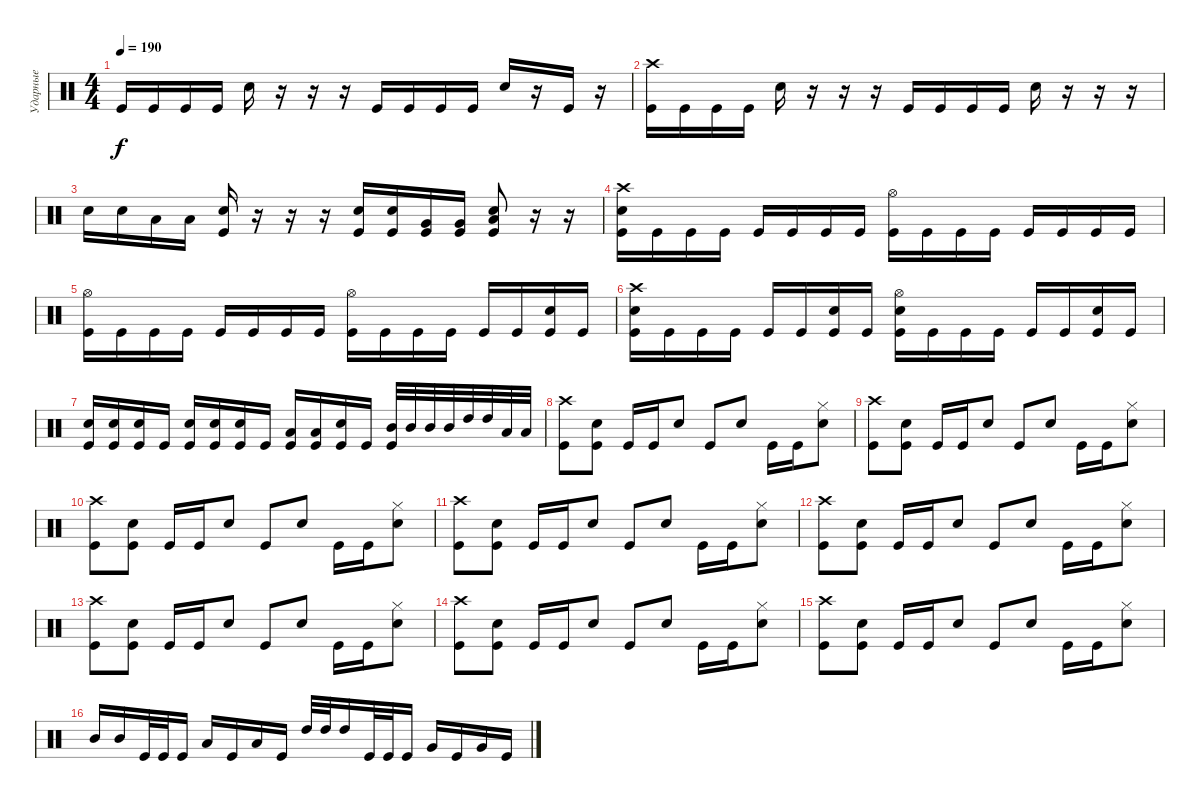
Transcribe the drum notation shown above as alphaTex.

\track ("Ударные" "Ударные") {instrument percussion}
\staff {score}
\articulation defaults
\ts (4 4)
\tempo 190
\clef neutral
\ks c "Kick (hit)".16{dy f} "Kick (hit)".16 "Kick (hit)".16 "Kick (hit)".16 "Electric Snare (hit)".16
r.16 r.16 r.16 "Kick (hit)".16 "Kick (hit)".16 "Kick (hit)".16 "Kick (hit)".16 "Electric Snare (hit)".16 r.16 "Kick (hit)".16 r.16 |
("Crash high (hit)" "Kick (hit)").16 "Kick (hit)".16 "Kick (hit)".16 "Kick (hit)".16 "Electric Snare (hit)".16 r.16 r.16 r.16 "Kick (hit)".16 "Kick (hit)".16 "Kick (hit)".16 "Kick (hit)".16 "Electric Snare (hit)".16 r.16 r.16 r.16 |
"Electric Snare (hit)".16 "Electric Snare (hit)".16 "Low Tom (hit)".16 "Low Tom (hit)".16 ("Electric Snare (hit)" "Kick (hit)").16 r.16 r.16 r.16 ("Electric Snare (hit)" "Kick (hit)").16 ("Electric Snare (hit)" "Kick (hit)").16 ("Very Low Tom (hit)" "Kick (hit)").16 ("Very Low Tom (hit)" "Kick (hit)").16 ("Low Tom (hit)" "Electric Snare (hit)" "Kick (hit)").8 r.16 r.16 |
("Crash high (hit)" "Electric Snare (hit)" "Kick (hit)").16 "Kick (hit)".16 "Kick (hit)".16 "Kick (hit)".16 "Kick (hit)".16 "Kick (hit)".16 "Kick (hit)".16 "Kick (hit)".16 ("Hi-Hat (open)" "Kick (hit)").16 "Kick (hit)".16 "Kick (hit)".16 "Kick (hit)".16 "Kick (hit)".16 "Kick (hit)".16 "Kick (hit)".16 "Kick (hit)".16 |
("Hi-Hat (open)" "Kick (hit)").16 "Kick (hit)".16 "Kick (hit)".16 "Kick (hit)".16 "Kick (hit)".16 "Kick (hit)".16 "Kick (hit)".16 "Kick (hit)".16 ("Hi-Hat (open)" "Kick (hit)").16 "Kick (hit)".16 "Kick (hit)".16 "Kick (hit)".16 "Kick (hit)".16 "Kick (hit)".16 ("Electric Snare (hit)" "Kick (hit)").16 "Kick (hit)".16 |
("Crash high (hit)" "Electric Snare (hit)" "Kick (hit)").16 "Kick (hit)".16 "Kick (hit)".16 "Kick (hit)".16 "Kick (hit)".16 "Kick (hit)".16 ("Electric Snare (hit)" "Kick (hit)").16 "Kick (hit)".16 ("Hi-Hat (open)" "Electric Snare (hit)" "Kick (hit)").16 "Kick (hit)".16 "Kick (hit)".16 "Kick (hit)".16 "Kick (hit)".16 "Kick (hit)".16 ("Electric Snare (hit)" "Kick (hit)").16 "Kick (hit)".16 |
("Electric Snare (hit)" "Kick (hit)").16 ("Electric Snare (hit)" "Kick (hit)").16 ("Electric Snare (hit)" "Kick (hit)").16 "Kick (hit)".16 ("Electric Snare (hit)" "Kick (hit)").16 ("Electric Snare (hit)" "Kick (hit)").16 ("Electric Snare (hit)" "Kick (hit)").16 "Kick (hit)".16 ("Low Tom (hit)" "Kick (hit)").16 ("Low Tom (hit)" "Kick (hit)").16 ("Electric Snare (hit)" "Kick (hit)").16 "Kick (hit)".16 ("Mid Tom (hit)" "Kick (hit)").32 "Mid Tom (hit)".32 "Mid Tom (hit)".32 "Mid Tom (hit)".32 "High Tom (hit)".32 "High Tom (hit)".32 "Low Tom (hit)".32 "Low Tom (hit)".32 |
("Crash high (hit)" "Kick (hit)").8 ("Electric Snare (hit)" "Kick (hit)").8 "Kick (hit)".16 "Kick (hit)".16 "Electric Snare (hit)".8 "Kick (hit)".8 "Electric Snare (hit)".8 "Kick (hit)".16 "Kick (hit)".16 ("Hi-Hat (closed)" "Electric Snare (hit)").8 |
("Crash high (hit)" "Kick (hit)").8 ("Electric Snare (hit)" "Kick (hit)").8 "Kick (hit)".16 "Kick (hit)".16 "Electric Snare (hit)".8 "Kick (hit)".8 "Electric Snare (hit)".8 "Kick (hit)".16 "Kick (hit)".16 ("Hi-Hat (closed)" "Electric Snare (hit)").8 |
("Crash high (hit)" "Kick (hit)").8 ("Electric Snare (hit)" "Kick (hit)").8 "Kick (hit)".16 "Kick (hit)".16 "Electric Snare (hit)".8 "Kick (hit)".8 "Electric Snare (hit)".8 "Kick (hit)".16 "Kick (hit)".16 ("Hi-Hat (closed)" "Electric Snare (hit)").8 |
("Crash high (hit)" "Kick (hit)").8 ("Electric Snare (hit)" "Kick (hit)").8 "Kick (hit)".16 "Kick (hit)".16 "Electric Snare (hit)".8 "Kick (hit)".8 "Electric Snare (hit)".8 "Kick (hit)".16 "Kick (hit)".16 ("Hi-Hat (closed)" "Electric Snare (hit)").8 |
("Crash high (hit)" "Kick (hit)").8 ("Electric Snare (hit)" "Kick (hit)").8 "Kick (hit)".16 "Kick (hit)".16 "Electric Snare (hit)".8 "Kick (hit)".8 "Electric Snare (hit)".8 "Kick (hit)".16 "Kick (hit)".16 ("Hi-Hat (closed)" "Electric Snare (hit)").8 |
("Crash high (hit)" "Kick (hit)").8 ("Electric Snare (hit)" "Kick (hit)").8 "Kick (hit)".16 "Kick (hit)".16 "Electric Snare (hit)".8 "Kick (hit)".8 "Electric Snare (hit)".8 "Kick (hit)".16 "Kick (hit)".16 ("Hi-Hat (closed)" "Electric Snare (hit)").8 |
("Crash high (hit)" "Kick (hit)").8 ("Electric Snare (hit)" "Kick (hit)").8 "Kick (hit)".16 "Kick (hit)".16 "Electric Snare (hit)".8 "Kick (hit)".8 "Electric Snare (hit)".8 "Kick (hit)".16 "Kick (hit)".16 ("Hi-Hat (closed)" "Electric Snare (hit)").8 |
("Crash high (hit)" "Kick (hit)").8 ("Electric Snare (hit)" "Kick (hit)").8 "Kick (hit)".16 "Kick (hit)".16 "Electric Snare (hit)".8 "Kick (hit)".8 "Electric Snare (hit)".8 "Kick (hit)".16 "Kick (hit)".16 ("Hi-Hat (closed)" "Electric Snare (hit)").8 |
"Mid Tom (hit)".16 "Mid Tom (hit)".16 "Kick (hit)".32 "Kick (hit)".32 "Kick (hit)".16 "Low Tom (hit)".16 "Kick (hit)".16 "Low Tom (hit)".16 "Kick (hit)".16 "High Tom (hit)".32 "High Tom (hit)".32 "High Tom (hit)".16 "Kick (hit)".32 "Kick (hit)".32 "Kick (hit)".16 "Very Low Tom (hit)".16 "Kick (hit)".16 "Very Low Tom (hit)".16 "Kick (hit)".16
